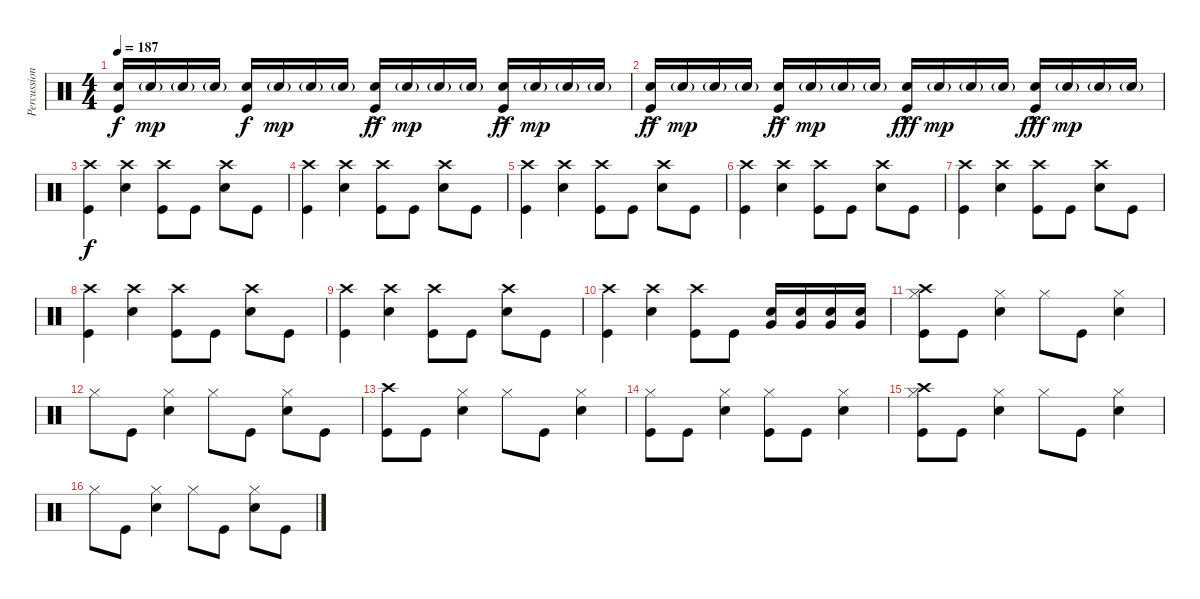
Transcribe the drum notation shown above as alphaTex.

\track ("Percussions" "Percussion") {instrument percussion}
\staff {score}
\articulation defaults
\ts (4 4)
\tempo 187
\clef neutral
\ks c
("Kick (hit)" "Electric Snare (hit)").16{dy f} "Electric Snare (hit)"{g}.16{dy mp} "Electric Snare (hit)"{g}.16 "Electric Snare (hit)"{g}.16 ("Kick (hit)" "Electric Snare (hit)").16{dy f} "Electric Snare (hit)"{g}.16{dy mp} "Electric Snare (hit)"{g}.16 "Electric Snare (hit)"{g}.16 ("Kick (hit)"{ac} "Electric Snare (hit)"{ac}).16{dy ff} "Electric Snare (hit)"{g}.16{dy mp} "Electric Snare (hit)"{g}.16 "Electric Snare (hit)"{g}.16 ("Kick (hit)"{ac} "Electric Snare (hit)"{ac}).16{dy ff} "Electric Snare (hit)"{g}.16{dy mp} "Electric Snare (hit)"{g}.16 "Electric Snare (hit)"{g}.16 |
("Kick (hit)"{ac} "Electric Snare (hit)"{ac}).16{dy ff} "Electric Snare (hit)"{g}.16{dy mp} "Electric Snare (hit)"{g}.16 "Electric Snare (hit)"{g}.16 ("Kick (hit)"{ac} "Electric Snare (hit)"{ac}).16{dy ff} "Electric Snare (hit)"{g}.16{dy mp} "Electric Snare (hit)"{g}.16 "Electric Snare (hit)"{g}.16 ("Kick (hit)"{hac} "Electric Snare (hit)"{hac}).16{dy fff} "Electric Snare (hit)"{g}.16{dy mp} "Electric Snare (hit)"{g}.16 "Electric Snare (hit)"{g}.16 ("Kick (hit)"{hac} "Electric Snare (hit)"{hac}).16{dy fff} "Electric Snare (hit)"{g}.16{dy mp} "Electric Snare (hit)"{g}.16 "Electric Snare (hit)"{g}.16 |
("Kick (hit)" "Crash high (hit)").4{dy f} ("Electric Snare (hit)" "Crash high (hit)").4 ("Kick (hit)" "Crash high (hit)").8 "Kick (hit)".8 ("Electric Snare (hit)" "Crash high (hit)").8 "Kick (hit)".8 |
("Kick (hit)" "Crash high (hit)").4 ("Electric Snare (hit)" "Crash high (hit)").4 ("Kick (hit)" "Crash high (hit)").8 "Kick (hit)".8 ("Electric Snare (hit)" "Crash high (hit)").8 "Kick (hit)".8 |
("Kick (hit)" "Crash high (hit)").4 ("Electric Snare (hit)" "Crash high (hit)").4 ("Kick (hit)" "Crash high (hit)").8 "Kick (hit)".8 ("Electric Snare (hit)" "Crash high (hit)").8 "Kick (hit)".8 |
("Kick (hit)" "Crash high (hit)").4 ("Electric Snare (hit)" "Crash high (hit)").4 ("Kick (hit)" "Crash high (hit)").8 "Kick (hit)".8 ("Electric Snare (hit)" "Crash high (hit)").8 "Kick (hit)".8 |
("Kick (hit)" "Crash high (hit)").4 ("Electric Snare (hit)" "Crash high (hit)").4 ("Kick (hit)" "Crash high (hit)").8 "Kick (hit)".8 ("Electric Snare (hit)" "Crash high (hit)").8 "Kick (hit)".8 |
("Kick (hit)" "Crash high (hit)").4 ("Electric Snare (hit)" "Crash high (hit)").4 ("Kick (hit)" "Crash high (hit)").8 "Kick (hit)".8 ("Electric Snare (hit)" "Crash high (hit)").8 "Kick (hit)".8 |
("Kick (hit)" "Crash high (hit)").4 ("Electric Snare (hit)" "Crash high (hit)").4 ("Kick (hit)" "Crash high (hit)").8 "Kick (hit)".8 ("Electric Snare (hit)" "Crash high (hit)").8 "Kick (hit)".8 |
("Kick (hit)" "Crash high (hit)").4 ("Electric Snare (hit)" "Crash high (hit)").4 ("Kick (hit)" "Crash high (hit)").8 "Kick (hit)".8 ("Electric Snare (hit)" "Very Low Tom (hit)").16 ("Electric Snare (hit)" "Very Low Tom (hit)").16 ("Electric Snare (hit)" "Very Low Tom (hit)").16 ("Electric Snare (hit)" "Very Low Tom (hit)").16 |
("Kick (hit)" "Hi-Hat (closed)" "Crash high (hit)").8 "Kick (hit)".8 ("Electric Snare (hit)" "Hi-Hat (closed)").4 "Hi-Hat (closed)".8 "Kick (hit)".8 ("Electric Snare (hit)" "Hi-Hat (closed)").4 |
"Hi-Hat (closed)".8 "Kick (hit)".8 ("Electric Snare (hit)" "Hi-Hat (closed)").4 "Hi-Hat (closed)".8 "Kick (hit)".8 ("Hi-Hat (closed)" "Electric Snare (hit)").8 "Kick (hit)".8 |
("Kick (hit)" "Crash high (hit)").8 "Kick (hit)".8 ("Electric Snare (hit)" "Hi-Hat (closed)").4 "Hi-Hat (closed)".8 "Kick (hit)".8 ("Electric Snare (hit)" "Hi-Hat (closed)").4 |
("Hi-Hat (closed)" "Kick (hit)").8 "Kick (hit)".8 ("Electric Snare (hit)" "Hi-Hat (closed)").4 ("Hi-Hat (closed)" "Kick (hit)").8 "Kick (hit)".8 ("Electric Snare (hit)" "Hi-Hat (closed)").4 |
("Kick (hit)" "Hi-Hat (closed)" "Crash high (hit)").8 "Kick (hit)".8 ("Electric Snare (hit)" "Hi-Hat (closed)").4 "Hi-Hat (closed)".8 "Kick (hit)".8 ("Electric Snare (hit)" "Hi-Hat (closed)").4 |
"Hi-Hat (closed)".8 "Kick (hit)".8 ("Electric Snare (hit)" "Hi-Hat (closed)").4 "Hi-Hat (closed)".8 "Kick (hit)".8 ("Hi-Hat (closed)" "Electric Snare (hit)").8 "Kick (hit)".8
